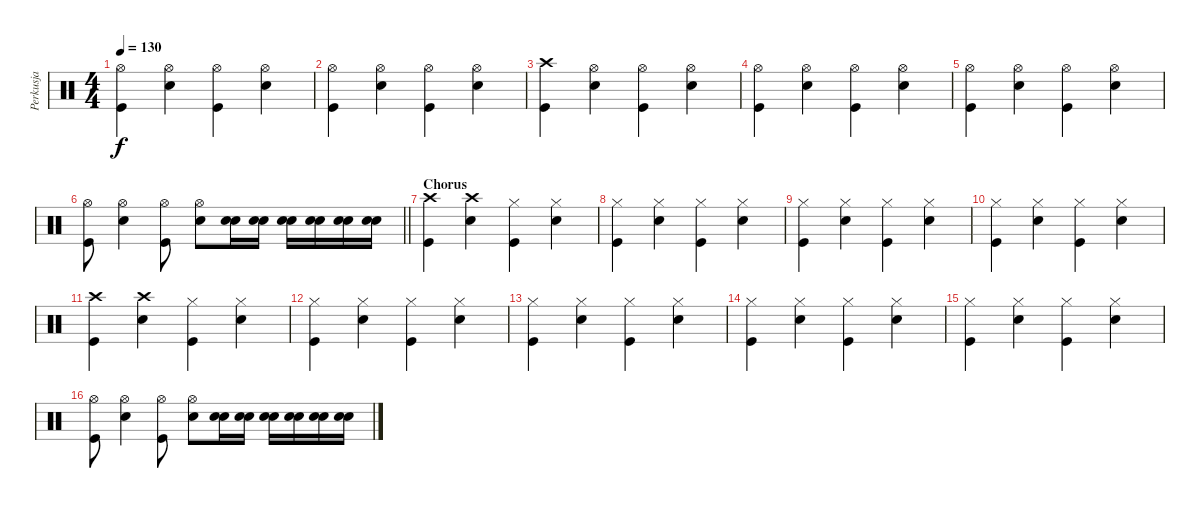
\track ("Perkusja" "Perkusja") {instrument percussion}
\staff {score}
\articulation defaults
\ts (4 4)
\tempo 130
\clef neutral
\ks c
("Hi-Hat (open)" "Kick (hit)").4{dy f} ("Hi-Hat (open)" "Snare (hit) 2").4 ("Hi-Hat (open)" "Kick (hit)").4 ("Hi-Hat (open)" "Snare (hit) 2").4 |
("Hi-Hat (open)" "Kick (hit)").4 ("Hi-Hat (open)" "Snare (hit) 2").4 ("Hi-Hat (open)" "Kick (hit)").4 ("Hi-Hat (open)" "Snare (hit) 2").4 |
("Crash high (hit)" "Kick (hit)").4 ("Hi-Hat (open)" "Snare (hit) 2").4 ("Hi-Hat (open)" "Kick (hit)").4 ("Hi-Hat (open)" "Snare (hit) 2").4 |
("Hi-Hat (open)" "Kick (hit)").4 ("Hi-Hat (open)" "Snare (hit) 2").4 ("Hi-Hat (open)" "Kick (hit)").4 ("Hi-Hat (open)" "Snare (hit) 2").4 |
("Hi-Hat (open)" "Kick (hit)").4 ("Hi-Hat (open)" "Snare (hit) 2").4 ("Hi-Hat (open)" "Kick (hit)").4 ("Hi-Hat (open)" "Snare (hit) 2").4 |
\barLineRight lightlight
("Hi-Hat (open)" "Kick (hit)").8 ("Hi-Hat (open)" "Snare (hit) 2").4 ("Hi-Hat (open)" "Kick (hit)").8 ("Hi-Hat (open)" "Snare (hit) 2").8 ("Electric Snare (hit)" "Snare (hit) 2").16 ("Electric Snare (hit)" "Snare (hit) 2").16 ("Electric Snare (hit)" "Snare (hit) 2").16 ("Electric Snare (hit)" "Snare (hit) 2").16 ("Electric Snare (hit)" "Snare (hit) 2").16 ("Electric Snare (hit)" "Snare (hit) 2").16 |
\section ("" "Chorus")
("Crash high (hit)" "Kick (hit)").4 ("Crash high (hit)" "Snare (hit) 2").4 ("Hi-Hat (closed)" "Kick (hit)").4 ("Hi-Hat (closed)" "Snare (hit) 2").4 |
("Hi-Hat (closed)" "Kick (hit)").4 ("Hi-Hat (closed)" "Snare (hit) 2").4 ("Hi-Hat (closed)" "Kick (hit)").4 ("Hi-Hat (closed)" "Snare (hit) 2").4 |
("Hi-Hat (closed)" "Kick (hit)").4 ("Hi-Hat (closed)" "Snare (hit) 2").4 ("Hi-Hat (closed)" "Kick (hit)").4 ("Hi-Hat (closed)" "Snare (hit) 2").4 |
("Hi-Hat (closed)" "Kick (hit)").4 ("Hi-Hat (closed)" "Snare (hit) 2").4 ("Hi-Hat (closed)" "Kick (hit)").4 ("Hi-Hat (closed)" "Snare (hit) 2").4 |
("Crash high (hit)" "Kick (hit)").4 ("Crash high (hit)" "Snare (hit) 2").4 ("Hi-Hat (closed)" "Kick (hit)").4 ("Hi-Hat (closed)" "Snare (hit) 2").4 |
("Hi-Hat (closed)" "Kick (hit)").4 ("Hi-Hat (closed)" "Snare (hit) 2").4 ("Hi-Hat (closed)" "Kick (hit)").4 ("Hi-Hat (closed)" "Snare (hit) 2").4 |
("Hi-Hat (closed)" "Kick (hit)").4 ("Hi-Hat (closed)" "Snare (hit) 2").4 ("Hi-Hat (closed)" "Kick (hit)").4 ("Hi-Hat (closed)" "Snare (hit) 2").4 |
("Hi-Hat (closed)" "Kick (hit)").4 ("Hi-Hat (closed)" "Snare (hit) 2").4 ("Hi-Hat (closed)" "Kick (hit)").4 ("Hi-Hat (closed)" "Snare (hit) 2").4 |
("Hi-Hat (closed)" "Kick (hit)").4 ("Hi-Hat (closed)" "Snare (hit) 2").4 ("Hi-Hat (closed)" "Kick (hit)").4 ("Hi-Hat (closed)" "Snare (hit) 2").4 |
("Hi-Hat (open)" "Kick (hit)").8 ("Hi-Hat (open)" "Snare (hit) 2").4 ("Hi-Hat (open)" "Kick (hit)").8 ("Hi-Hat (open)" "Snare (hit) 2").8 ("Electric Snare (hit)" "Snare (hit) 2").16 ("Electric Snare (hit)" "Snare (hit) 2").16 ("Electric Snare (hit)" "Snare (hit) 2").16 ("Electric Snare (hit)" "Snare (hit) 2").16 ("Electric Snare (hit)" "Snare (hit) 2").16 ("Electric Snare (hit)" "Snare (hit) 2").16
